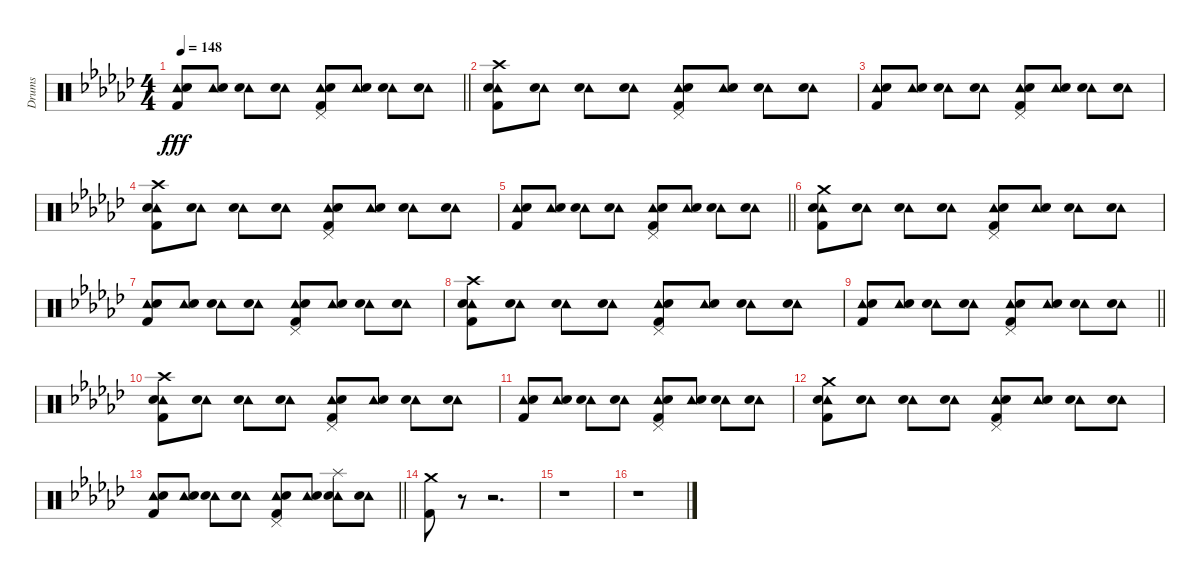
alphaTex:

\track ("Drums" "Drums") {instrument percussion}
\staff {score}
\articulation defaults
\ts (4 4)
\tempo 148
\clef neutral
\barLineRight lightlight
\ks gb
("Tambourine (hit)" "Electric Snare (hit)" "Kick (hit) 2").8{dy fff} ("Tambourine (hit)" "Electric Snare (hit)").8 ("Tambourine (hit)" "Electric Snare (hit)").8 ("Tambourine (hit)" "Electric Snare (hit)").8 ("Pedal Hi-Hat (hit)" "Tambourine (hit)" "Electric Snare (hit)" "Kick (hit) 2").8 ("Tambourine (hit)" "Electric Snare (hit)").8 ("Tambourine (hit)" "Electric Snare (hit)").8 ("Tambourine (hit)" "Electric Snare (hit)").8 |
("Crash high (hit)" "Tambourine (hit)" "Electric Snare (hit)" "Kick (hit) 2").8 ("Tambourine (hit)" "Electric Snare (hit)").8 ("Tambourine (hit)" "Electric Snare (hit)").8 ("Tambourine (hit)" "Electric Snare (hit)").8 ("Pedal Hi-Hat (hit)" "Tambourine (hit)" "Electric Snare (hit)" "Kick (hit) 2").8 ("Tambourine (hit)" "Electric Snare (hit)").8 ("Tambourine (hit)" "Electric Snare (hit)").8 ("Tambourine (hit)" "Electric Snare (hit)").8 |
("Tambourine (hit)" "Electric Snare (hit)" "Kick (hit) 2").8 ("Tambourine (hit)" "Electric Snare (hit)").8 ("Tambourine (hit)" "Electric Snare (hit)").8 ("Tambourine (hit)" "Electric Snare (hit)").8 ("Pedal Hi-Hat (hit)" "Tambourine (hit)" "Electric Snare (hit)" "Kick (hit) 2").8 ("Tambourine (hit)" "Electric Snare (hit)").8 ("Tambourine (hit)" "Electric Snare (hit)").8 ("Tambourine (hit)" "Electric Snare (hit)").8 |
("Crash high (hit)" "Tambourine (hit)" "Electric Snare (hit)" "Kick (hit) 2").8 ("Tambourine (hit)" "Electric Snare (hit)").8 ("Tambourine (hit)" "Electric Snare (hit)").8 ("Tambourine (hit)" "Electric Snare (hit)").8 ("Pedal Hi-Hat (hit)" "Tambourine (hit)" "Electric Snare (hit)" "Kick (hit) 2").8 ("Tambourine (hit)" "Electric Snare (hit)").8 ("Tambourine (hit)" "Electric Snare (hit)").8 ("Tambourine (hit)" "Electric Snare (hit)").8 |
\barLineRight lightlight
("Tambourine (hit)" "Electric Snare (hit)" "Kick (hit) 2").8 ("Tambourine (hit)" "Electric Snare (hit)").8 ("Tambourine (hit)" "Electric Snare (hit)").8 ("Tambourine (hit)" "Electric Snare (hit)").8 ("Pedal Hi-Hat (hit)" "Tambourine (hit)" "Electric Snare (hit)" "Kick (hit) 2").8 ("Tambourine (hit)" "Electric Snare (hit)").8 ("Tambourine (hit)" "Electric Snare (hit)").8 ("Tambourine (hit)" "Electric Snare (hit)").8 |
("Crash medium (hit)" "Tambourine (hit)" "Electric Snare (hit)" "Kick (hit) 2").8 ("Tambourine (hit)" "Electric Snare (hit)").8 ("Tambourine (hit)" "Electric Snare (hit)").8 ("Tambourine (hit)" "Electric Snare (hit)").8 ("Pedal Hi-Hat (hit)" "Tambourine (hit)" "Electric Snare (hit)" "Kick (hit) 2").8 ("Tambourine (hit)" "Electric Snare (hit)").8 ("Tambourine (hit)" "Electric Snare (hit)").8 ("Tambourine (hit)" "Electric Snare (hit)").8 |
("Tambourine (hit)" "Electric Snare (hit)" "Kick (hit) 2").8 ("Tambourine (hit)" "Electric Snare (hit)").8 ("Tambourine (hit)" "Electric Snare (hit)").8 ("Tambourine (hit)" "Electric Snare (hit)").8 ("Pedal Hi-Hat (hit)" "Tambourine (hit)" "Electric Snare (hit)" "Kick (hit) 2").8 ("Tambourine (hit)" "Electric Snare (hit)").8 ("Tambourine (hit)" "Electric Snare (hit)").8 ("Tambourine (hit)" "Electric Snare (hit)").8 |
("Crash high (hit)" "Tambourine (hit)" "Electric Snare (hit)" "Kick (hit) 2").8 ("Tambourine (hit)" "Electric Snare (hit)").8 ("Tambourine (hit)" "Electric Snare (hit)").8 ("Tambourine (hit)" "Electric Snare (hit)").8 ("Pedal Hi-Hat (hit)" "Tambourine (hit)" "Electric Snare (hit)" "Kick (hit) 2").8 ("Tambourine (hit)" "Electric Snare (hit)").8 ("Tambourine (hit)" "Electric Snare (hit)").8 ("Tambourine (hit)" "Electric Snare (hit)").8 |
\barLineRight lightlight
("Tambourine (hit)" "Electric Snare (hit)" "Kick (hit) 2").8 ("Tambourine (hit)" "Electric Snare (hit)").8 ("Tambourine (hit)" "Electric Snare (hit)").8 ("Tambourine (hit)" "Electric Snare (hit)").8 ("Pedal Hi-Hat (hit)" "Tambourine (hit)" "Electric Snare (hit)" "Kick (hit) 2").8 ("Tambourine (hit)" "Electric Snare (hit)").8 ("Tambourine (hit)" "Electric Snare (hit)").8 ("Tambourine (hit)" "Electric Snare (hit)").8 |
("Crash high (hit)" "Tambourine (hit)" "Electric Snare (hit)" "Kick (hit) 2").8 ("Tambourine (hit)" "Electric Snare (hit)").8 ("Tambourine (hit)" "Electric Snare (hit)").8 ("Tambourine (hit)" "Electric Snare (hit)").8 ("Pedal Hi-Hat (hit)" "Tambourine (hit)" "Electric Snare (hit)" "Kick (hit) 2").8 ("Tambourine (hit)" "Electric Snare (hit)").8 ("Tambourine (hit)" "Electric Snare (hit)").8 ("Tambourine (hit)" "Electric Snare (hit)").8 |
("Tambourine (hit)" "Electric Snare (hit)" "Kick (hit) 2").8 ("Tambourine (hit)" "Electric Snare (hit)").8 ("Tambourine (hit)" "Electric Snare (hit)").8 ("Tambourine (hit)" "Electric Snare (hit)").8 ("Pedal Hi-Hat (hit)" "Tambourine (hit)" "Electric Snare (hit)" "Kick (hit) 2").8 ("Tambourine (hit)" "Electric Snare (hit)").8 ("Tambourine (hit)" "Electric Snare (hit)").8 ("Tambourine (hit)" "Electric Snare (hit)").8 |
("Crash medium (hit)" "Tambourine (hit)" "Electric Snare (hit)" "Kick (hit) 2").8 ("Tambourine (hit)" "Electric Snare (hit)").8 ("Tambourine (hit)" "Electric Snare (hit)").8 ("Tambourine (hit)" "Electric Snare (hit)").8 ("Pedal Hi-Hat (hit)" "Tambourine (hit)" "Electric Snare (hit)" "Kick (hit) 2").8 ("Tambourine (hit)" "Electric Snare (hit)").8 ("Tambourine (hit)" "Electric Snare (hit)").8 ("Tambourine (hit)" "Electric Snare (hit)").8 |
\barLineRight lightlight
("Tambourine (hit)" "Electric Snare (hit)" "Kick (hit) 2").8 ("Tambourine (hit)" "Electric Snare (hit)").8 ("Tambourine (hit)" "Electric Snare (hit)").8 ("Tambourine (hit)" "Electric Snare (hit)").8 ("Pedal Hi-Hat (hit)" "Tambourine (hit)" "Electric Snare (hit)" "Kick (hit) 2").8 ("Tambourine (hit)" "Electric Snare (hit)").8 ("Splash (hit)" "Tambourine (hit)" "Electric Snare (hit)").8 ("Tambourine (hit)" "Electric Snare (hit)").8 |
("Crash medium (hit)" "Kick (hit) 2").8 r.8 r.2{d} |
r.1 |
r.1
